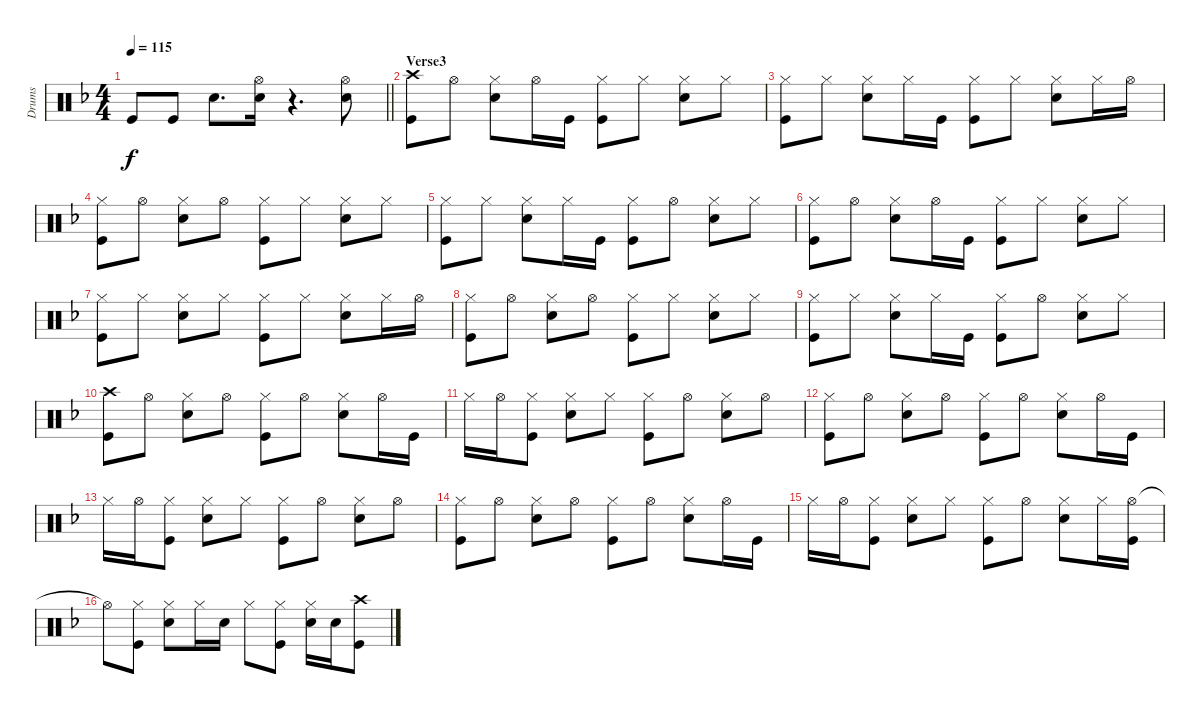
\track ("Drums" "Drums") {instrument percussion}
\staff {score}
\articulation defaults
\ts (4 4)
\tempo 115
\clef neutral
\barLineRight lightlight
\ks f "Kick (hit)".8{dy f} "Kick (hit)".8 "Snare (hit) 2".8{d}
("Snare (hit) 2" "Hi-Hat (open)").16 r.4{d} ("Snare (hit) 2" "Hi-Hat (open)").8 |
\section ("" "Verse3")
("Crash high (hit)" "Kick (hit)").8 "Hi-Hat (open)".8 ("Hi-Hat (closed)" "Snare (hit) 2").8 "Hi-Hat (open)".16 "Kick (hit)".16 ("Hi-Hat (closed)" "Kick (hit)").8 "Hi-Hat (closed)".8 ("Hi-Hat (closed)" "Snare (hit) 2").8 "Hi-Hat (closed)".8 |
("Hi-Hat (closed)" "Kick (hit)").8 "Hi-Hat (closed)".8 ("Hi-Hat (closed)" "Snare (hit) 2").8 "Hi-Hat (closed)".16 "Kick (hit)".16 ("Hi-Hat (closed)" "Kick (hit)").8 "Hi-Hat (closed)".8 ("Hi-Hat (closed)" "Snare (hit) 2").8 "Hi-Hat (closed)".16 "Hi-Hat (open)".16 |
("Hi-Hat (closed)" "Kick (hit)").8 "Hi-Hat (open)".8 ("Hi-Hat (closed)" "Snare (hit) 2").8 "Hi-Hat (open)".8 ("Hi-Hat (closed)" "Kick (hit)").8 "Hi-Hat (closed)".8 ("Hi-Hat (closed)" "Snare (hit) 2").8 "Hi-Hat (closed)".8 |
("Hi-Hat (closed)" "Kick (hit)").8 "Hi-Hat (closed)".8 ("Hi-Hat (closed)" "Snare (hit) 2").8 "Hi-Hat (closed)".16 "Kick (hit)".16 ("Hi-Hat (closed)" "Kick (hit)").8 "Hi-Hat (open)".8 ("Hi-Hat (closed)" "Snare (hit) 2").8 "Hi-Hat (closed)".8 |
("Hi-Hat (closed)" "Kick (hit)").8 "Hi-Hat (open)".8 ("Hi-Hat (closed)" "Snare (hit) 2").8 "Hi-Hat (open)".16 "Kick (hit)".16 ("Hi-Hat (closed)" "Kick (hit)").8 "Hi-Hat (closed)".8 ("Hi-Hat (closed)" "Snare (hit) 2").8 "Hi-Hat (closed)".8 |
("Hi-Hat (closed)" "Kick (hit)").8 "Hi-Hat (closed)".8 ("Hi-Hat (closed)" "Snare (hit) 2").8 "Hi-Hat (closed)".8 ("Hi-Hat (closed)" "Kick (hit)").8 "Hi-Hat (closed)".8 ("Hi-Hat (closed)" "Snare (hit) 2").8 "Hi-Hat (closed)".16 "Hi-Hat (open)".16 |
("Hi-Hat (closed)" "Kick (hit)").8 "Hi-Hat (open)".8 ("Hi-Hat (closed)" "Snare (hit) 2").8 "Hi-Hat (open)".8 ("Hi-Hat (closed)" "Kick (hit)").8 "Hi-Hat (closed)".8 ("Hi-Hat (closed)" "Snare (hit) 2").8 "Hi-Hat (closed)".8 |
("Hi-Hat (closed)" "Kick (hit)").8 "Hi-Hat (closed)".8 ("Hi-Hat (closed)" "Snare (hit) 2").8 "Hi-Hat (closed)".16 "Kick (hit)".16 ("Hi-Hat (closed)" "Kick (hit)").8 "Hi-Hat (open)".8 ("Hi-Hat (closed)" "Snare (hit) 2").8 "Hi-Hat (closed)".8 |
("Crash high (hit)" "Kick (hit)").8 "Hi-Hat (open)".8 ("Snare (hit) 2" "Hi-Hat (closed)").8 "Hi-Hat (open)".8 ("Hi-Hat (closed)" "Kick (hit)").8 "Hi-Hat (open)".8 ("Hi-Hat (closed)" "Snare (hit) 2").8 "Hi-Hat (open)".16 "Kick (hit)".16 |
"Hi-Hat (closed)".16 "Hi-Hat (open)".16 ("Hi-Hat (closed)" "Kick (hit)").8 ("Hi-Hat (closed)" "Snare (hit) 2").8 "Hi-Hat (closed)".8 ("Hi-Hat (closed)" "Kick (hit)").8 "Hi-Hat (open)".8 ("Hi-Hat (closed)" "Snare (hit) 2").8 "Hi-Hat (open)".8 |
("Hi-Hat (closed)" "Kick (hit)").8 "Hi-Hat (open)".8 ("Snare (hit) 2" "Hi-Hat (closed)").8 "Hi-Hat (open)".8 ("Hi-Hat (closed)" "Kick (hit)").8 "Hi-Hat (open)".8 ("Hi-Hat (closed)" "Snare (hit) 2").8 "Hi-Hat (open)".16 "Kick (hit)".16 |
"Hi-Hat (closed)".16 "Hi-Hat (open)".16 ("Hi-Hat (closed)" "Kick (hit)").8 ("Hi-Hat (closed)" "Snare (hit) 2").8 "Hi-Hat (closed)".8 ("Hi-Hat (closed)" "Kick (hit)").8 "Hi-Hat (open)".8 ("Hi-Hat (closed)" "Snare (hit) 2").8 "Hi-Hat (open)".8 |
("Hi-Hat (closed)" "Kick (hit)").8 "Hi-Hat (open)".8 ("Snare (hit) 2" "Hi-Hat (closed)").8 "Hi-Hat (open)".8 ("Hi-Hat (closed)" "Kick (hit)").8 "Hi-Hat (open)".8 ("Hi-Hat (closed)" "Snare (hit) 2").8 "Hi-Hat (open)".16 "Kick (hit)".16 |
"Hi-Hat (closed)".16 "Hi-Hat (open)".16 ("Hi-Hat (closed)" "Kick (hit)").8 ("Hi-Hat (closed)" "Snare (hit) 2").8 "Hi-Hat (closed)".8 ("Hi-Hat (closed)" "Kick (hit)").8 "Hi-Hat (open)".8 ("Hi-Hat (closed)" "Snare (hit) 2").8 "Hi-Hat (closed)".16 ("Hi-Hat (open)" "Kick (hit)").16 |
"Hi-Hat (open)"{t}.8 ("Kick (hit)" "Hi-Hat (closed)").8 ("Hi-Hat (closed)" "Snare (hit) 2").8 "Hi-Hat (closed)".16 "Snare (hit) 2".16 "Hi-Hat (closed)".8 ("Hi-Hat (closed)" "Kick (hit)").8 ("Hi-Hat (closed)" "Snare (hit) 2").16 "Snare (hit) 2".16 ("Crash high (hit)" "Kick (hit)").8
